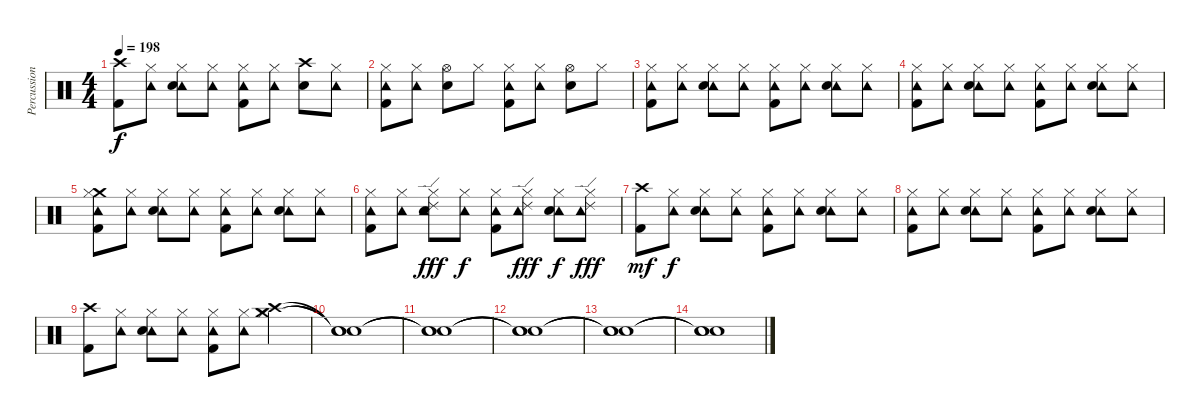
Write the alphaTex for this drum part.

\track ("Percussion" "Percussion") {instrument percussion}
\staff {score}
\articulation defaults
\ts (4 4)
\tempo 198
\clef neutral
\ks c
("Crash high (hit)" "Kick (hit) 2").8{dy f} ("Tambourine (hit)" "Hi-Hat (closed)").8 ("Tambourine (hit)" "Hi-Hat (closed)" "Electric Snare (hit)").8 ("Tambourine (hit)" "Hi-Hat (closed)").8 ("Tambourine (hit)" "Hi-Hat (closed)" "Kick (hit) 2").8 ("Tambourine (hit)" "Hi-Hat (closed)").8 ("Crash high (hit)" "Electric Snare (hit)").8 ("Tambourine (hit)" "Hi-Hat (closed)").8 |
("Tambourine (hit)" "Hi-Hat (closed)" "Kick (hit) 2").8 ("Tambourine (hit)" "Hi-Hat (closed)").8 ("Hi-Hat (open)" "Electric Snare (hit)").8 "Hi-Hat (closed)".8 ("Tambourine (hit)" "Hi-Hat (closed)" "Kick (hit) 2").8 ("Tambourine (hit)" "Hi-Hat (closed)").8 ("Hi-Hat (open)" "Electric Snare (hit)").8 "Hi-Hat (closed)".8 |
("Tambourine (hit)" "Hi-Hat (closed)" "Kick (hit) 2").8 ("Tambourine (hit)" "Hi-Hat (closed)").8 ("Tambourine (hit)" "Hi-Hat (closed)" "Electric Snare (hit)").8 ("Tambourine (hit)" "Hi-Hat (closed)").8 ("Tambourine (hit)" "Hi-Hat (closed)" "Kick (hit) 2").8 ("Tambourine (hit)" "Hi-Hat (closed)").8 ("Tambourine (hit)" "Hi-Hat (closed)" "Electric Snare (hit)").8 ("Tambourine (hit)" "Hi-Hat (closed)").8 |
("Tambourine (hit)" "Hi-Hat (closed)" "Kick (hit) 2").8 ("Tambourine (hit)" "Hi-Hat (closed)").8 ("Tambourine (hit)" "Hi-Hat (closed)" "Electric Snare (hit)").8 ("Tambourine (hit)" "Hi-Hat (closed)").8 ("Tambourine (hit)" "Hi-Hat (closed)" "Kick (hit) 2").8 ("Tambourine (hit)" "Hi-Hat (closed)").8 ("Tambourine (hit)" "Hi-Hat (closed)" "Electric Snare (hit)").8 ("Tambourine (hit)" "Hi-Hat (closed)").8 |
("Crash medium (hit)" "Tambourine (hit)" "Hi-Hat (closed)" "Kick (hit) 2").8 ("Tambourine (hit)" "Hi-Hat (closed)").8 ("Tambourine (hit)" "Hi-Hat (closed)" "Electric Snare (hit)").8 ("Tambourine (hit)" "Hi-Hat (closed)").8 ("Tambourine (hit)" "Hi-Hat (closed)" "Kick (hit) 2").8 ("Tambourine (hit)" "Hi-Hat (closed)").8 ("Tambourine (hit)" "Hi-Hat (closed)" "Electric Snare (hit)").8 ("Tambourine (hit)" "Hi-Hat (closed)").8 |
("Tambourine (hit)" "Hi-Hat (closed)" "Kick (hit) 2").8 ("Tambourine (hit)" "Hi-Hat (closed)").8 ("Ride (edge) 2" "Tambourine (hit)" "Hi-Hat (closed)" "Electric Snare (hit)").8{dy fff} ("Tambourine (hit)" "Hi-Hat (closed)").8{dy f} ("Tambourine (hit)" "Hi-Hat (closed)" "Kick (hit) 2").8 ("Ride (edge) 2" "Tambourine (hit)" "Hi-Hat (closed)").8{dy fff} ("Tambourine (hit)" "Hi-Hat (closed)" "Electric Snare (hit)").8{dy f} ("Ride (edge) 2" "Tambourine (hit)" "Hi-Hat (closed)").8{dy fff} |
("Crash high (hit)" "Kick (hit) 2").8{dy mf} ("Tambourine (hit)" "Hi-Hat (closed)").8{dy f} ("Tambourine (hit)" "Hi-Hat (closed)" "Electric Snare (hit)").8 ("Tambourine (hit)" "Hi-Hat (closed)").8 ("Tambourine (hit)" "Hi-Hat (closed)" "Kick (hit) 2").8 ("Tambourine (hit)" "Hi-Hat (closed)").8 ("Tambourine (hit)" "Hi-Hat (closed)" "Electric Snare (hit)").8 ("Tambourine (hit)" "Hi-Hat (closed)").8 |
("Tambourine (hit)" "Hi-Hat (closed)" "Kick (hit) 2").8 ("Tambourine (hit)" "Hi-Hat (closed)").8 ("Tambourine (hit)" "Hi-Hat (closed)" "Electric Snare (hit)").8 ("Tambourine (hit)" "Hi-Hat (closed)").8 ("Tambourine (hit)" "Hi-Hat (closed)" "Kick (hit) 2").8 ("Tambourine (hit)" "Hi-Hat (closed)").8 ("Tambourine (hit)" "Hi-Hat (closed)" "Electric Snare (hit)").8 ("Tambourine (hit)" "Hi-Hat (closed)").8 |
("Crash high (hit)" "Kick (hit) 2").8 ("Tambourine (hit)" "Hi-Hat (closed)").8 ("Tambourine (hit)" "Hi-Hat (closed)" "Electric Snare (hit)").8 ("Tambourine (hit)" "Hi-Hat (closed)").8 ("Tambourine (hit)" "Hi-Hat (closed)" "Kick (hit) 2").8 ("Tambourine (hit)" "Hi-Hat (closed)").8 ("Crash high (hit)" "Crash medium (hit)" "Hi-Hat (closed)").4 |
("Snare (hit)"{t} "Snare (hit)"{t} "Snare (hit)"{t}).1 |
("Snare (hit)"{t} "Snare (hit)"{t} "Snare (hit)"{t}).1 |
("Snare (hit)"{t} "Snare (hit)"{t} "Snare (hit)"{t}).1 |
("Snare (hit)"{t} "Snare (hit)"{t} "Snare (hit)"{t}).1 |
("Snare (hit)"{t} "Snare (hit)"{t} "Snare (hit)"{t}).1
